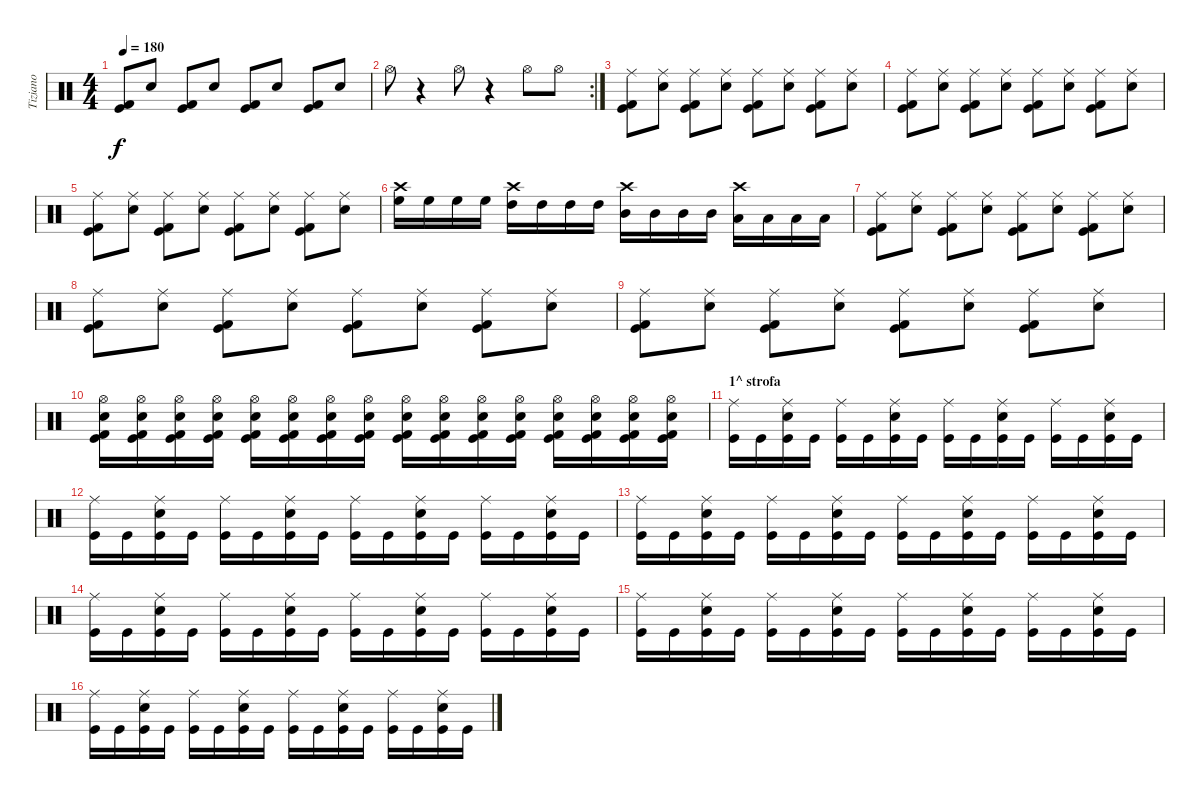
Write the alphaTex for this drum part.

\track ("Tiziano" "Tiziano") {instrument percussion}
\staff {score}
\articulation defaults
\ts (4 4)
\tempo 180
\clef neutral
\ks c
("Kick (hit)" "Kick (hit) 2").8{dy f} "Snare (hit) 2".8 ("Kick (hit)" "Kick (hit) 2").8 "Snare (hit) 2".8 ("Kick (hit)" "Kick (hit) 2").8 "Snare (hit) 2".8 ("Kick (hit)" "Kick (hit) 2").8 "Snare (hit) 2".8 |
\rc 2 "Hi-Hat (open)".8
r.4 "Hi-Hat (open)".8 r.4 "Hi-Hat (open)".8 "Hi-Hat (open)".8 |
("Kick (hit)" "Kick (hit) 2" "Ride (middle)").8 ("Snare (hit) 2" "Ride (middle)").8 ("Kick (hit)" "Kick (hit) 2" "Ride (middle)").8 ("Snare (hit) 2" "Ride (middle)").8 ("Kick (hit)" "Kick (hit) 2" "Ride (middle)").8 ("Snare (hit) 2" "Ride (middle)").8 ("Kick (hit)" "Kick (hit) 2" "Ride (middle)").8 ("Snare (hit) 2" "Ride (middle)").8 |
("Kick (hit)" "Kick (hit) 2" "Ride (middle)").8 ("Snare (hit) 2" "Ride (middle)").8 ("Kick (hit)" "Kick (hit) 2" "Ride (middle)").8 ("Snare (hit) 2" "Ride (middle)").8 ("Kick (hit)" "Kick (hit) 2" "Ride (middle)").8 ("Snare (hit) 2" "Ride (middle)").8 ("Kick (hit)" "Kick (hit) 2" "Ride (middle)").8 ("Snare (hit) 2" "Ride (middle)").8 |
("Kick (hit)" "Kick (hit) 2" "Ride (middle)").8 ("Snare (hit) 2" "Ride (middle)").8 ("Kick (hit)" "Kick (hit) 2" "Ride (middle)").8 ("Snare (hit) 2" "Ride (middle)").8 ("Kick (hit)" "Kick (hit) 2" "Ride (middle)").8 ("Snare (hit) 2" "Ride (middle)").8 ("Kick (hit)" "Kick (hit) 2" "Ride (middle)").8 ("Snare (hit) 2" "Ride (middle)").8 |
("High Floor Tom (hit)" "Crash high (hit)").16 "High Floor Tom (hit)".16 "High Floor Tom (hit)".16 "High Floor Tom (hit)".16 ("High Tom (hit)" "Crash high (hit)").16 "High Tom (hit)".16 "High Tom (hit)".16 "High Tom (hit)".16 ("Mid Tom (hit)" "Crash high (hit)").16 "Mid Tom (hit)".16 "Mid Tom (hit)".16 "Mid Tom (hit)".16 ("Low Tom (hit)" "Crash high (hit)").16 "Low Tom (hit)".16 "Low Tom (hit)".16 "Low Tom (hit)".16 |
("Kick (hit)" "Kick (hit) 2" "Ride (middle)").8 ("Snare (hit) 2" "Ride (middle)").8 ("Kick (hit)" "Kick (hit) 2" "Ride (middle)").8 ("Snare (hit) 2" "Ride (middle)").8 ("Kick (hit)" "Kick (hit) 2" "Ride (middle)").8 ("Snare (hit) 2" "Ride (middle)").8 ("Kick (hit)" "Kick (hit) 2" "Ride (middle)").8 ("Snare (hit) 2" "Ride (middle)").8 |
("Kick (hit)" "Kick (hit) 2" "Ride (middle)").8 ("Snare (hit) 2" "Ride (middle)").8 ("Kick (hit)" "Kick (hit) 2" "Ride (middle)").8 ("Snare (hit) 2" "Ride (middle)").8 ("Kick (hit)" "Kick (hit) 2" "Ride (middle)").8 ("Snare (hit) 2" "Ride (middle)").8 ("Kick (hit)" "Kick (hit) 2" "Ride (middle)").8 ("Snare (hit) 2" "Ride (middle)").8 |
("Kick (hit)" "Kick (hit) 2" "Ride (middle)").8 ("Snare (hit) 2" "Ride (middle)").8 ("Kick (hit)" "Kick (hit) 2" "Ride (middle)").8 ("Snare (hit) 2" "Ride (middle)").8 ("Kick (hit)" "Kick (hit) 2" "Ride (middle)").8 ("Snare (hit) 2" "Ride (middle)").8 ("Kick (hit)" "Kick (hit) 2" "Ride (middle)").8 ("Snare (hit) 2" "Ride (middle)").8 |
("Hi-Hat (open)" "Kick (hit)" "Kick (hit) 2" "Snare (hit) 2").16 ("Hi-Hat (open)" "Kick (hit)" "Kick (hit) 2" "Snare (hit) 2").16 ("Hi-Hat (open)" "Kick (hit)" "Kick (hit) 2" "Snare (hit) 2").16 ("Hi-Hat (open)" "Kick (hit)" "Kick (hit) 2" "Snare (hit) 2").16 ("Hi-Hat (open)" "Kick (hit)" "Kick (hit) 2" "Snare (hit) 2").16 ("Hi-Hat (open)" "Kick (hit)" "Kick (hit) 2" "Snare (hit) 2").16 ("Hi-Hat (open)" "Kick (hit)" "Kick (hit) 2" "Snare (hit) 2").16 ("Hi-Hat (open)" "Kick (hit)" "Kick (hit) 2" "Snare (hit) 2").16 ("Hi-Hat (open)" "Kick (hit)" "Kick (hit) 2" "Snare (hit) 2").16 ("Hi-Hat (open)" "Kick (hit)" "Kick (hit) 2" "Snare (hit) 2").16 ("Hi-Hat (open)" "Kick (hit)" "Kick (hit) 2" "Snare (hit) 2").16 ("Hi-Hat (open)" "Kick (hit)" "Kick (hit) 2" "Snare (hit) 2").16 ("Hi-Hat (open)" "Kick (hit)" "Kick (hit) 2" "Snare (hit) 2").16 ("Hi-Hat (open)" "Kick (hit)" "Kick (hit) 2" "Snare (hit) 2").16 ("Hi-Hat (open)" "Kick (hit)" "Kick (hit) 2" "Snare (hit) 2").16 ("Hi-Hat (open)" "Kick (hit)" "Kick (hit) 2" "Snare (hit) 2").16 |
\section ("" "1^ strofa")
("Kick (hit)" "Ride (middle)").16 "Kick (hit)".16 ("Kick (hit)" "Snare (hit) 2" "Ride (middle)").16 "Kick (hit)".16 ("Kick (hit)" "Ride (middle)").16 "Kick (hit)".16 ("Kick (hit)" "Snare (hit) 2" "Ride (middle)").16 "Kick (hit)".16 ("Kick (hit)" "Ride (middle)").16 "Kick (hit)".16 ("Kick (hit)" "Snare (hit) 2" "Ride (middle)").16 "Kick (hit)".16 ("Kick (hit)" "Ride (middle)").16 "Kick (hit)".16 ("Kick (hit)" "Snare (hit) 2" "Ride (middle)").16 "Kick (hit)".16 |
("Kick (hit)" "Ride (middle)").16 "Kick (hit)".16 ("Kick (hit)" "Snare (hit) 2" "Ride (middle)").16 "Kick (hit)".16 ("Kick (hit)" "Ride (middle)").16 "Kick (hit)".16 ("Kick (hit)" "Snare (hit) 2" "Ride (middle)").16 "Kick (hit)".16 ("Kick (hit)" "Ride (middle)").16 "Kick (hit)".16 ("Kick (hit)" "Snare (hit) 2" "Ride (middle)").16 "Kick (hit)".16 ("Kick (hit)" "Ride (middle)").16 "Kick (hit)".16 ("Kick (hit)" "Snare (hit) 2" "Ride (middle)").16 "Kick (hit)".16 |
("Kick (hit)" "Ride (middle)").16 "Kick (hit)".16 ("Kick (hit)" "Snare (hit) 2" "Ride (middle)").16 "Kick (hit)".16 ("Kick (hit)" "Ride (middle)").16 "Kick (hit)".16 ("Kick (hit)" "Snare (hit) 2" "Ride (middle)").16 "Kick (hit)".16 ("Kick (hit)" "Ride (middle)").16 "Kick (hit)".16 ("Kick (hit)" "Snare (hit) 2" "Ride (middle)").16 "Kick (hit)".16 ("Kick (hit)" "Ride (middle)").16 "Kick (hit)".16 ("Kick (hit)" "Snare (hit) 2" "Ride (middle)").16 "Kick (hit)".16 |
("Kick (hit)" "Ride (middle)").16 "Kick (hit)".16 ("Kick (hit)" "Snare (hit) 2" "Ride (middle)").16 "Kick (hit)".16 ("Kick (hit)" "Ride (middle)").16 "Kick (hit)".16 ("Kick (hit)" "Snare (hit) 2" "Ride (middle)").16 "Kick (hit)".16 ("Kick (hit)" "Ride (middle)").16 "Kick (hit)".16 ("Kick (hit)" "Snare (hit) 2" "Ride (middle)").16 "Kick (hit)".16 ("Kick (hit)" "Ride (middle)").16 "Kick (hit)".16 ("Kick (hit)" "Snare (hit) 2" "Ride (middle)").16 "Kick (hit)".16 |
("Kick (hit)" "Ride (middle)").16 "Kick (hit)".16 ("Kick (hit)" "Snare (hit) 2" "Ride (middle)").16 "Kick (hit)".16 ("Kick (hit)" "Ride (middle)").16 "Kick (hit)".16 ("Kick (hit)" "Snare (hit) 2" "Ride (middle)").16 "Kick (hit)".16 ("Kick (hit)" "Ride (middle)").16 "Kick (hit)".16 ("Kick (hit)" "Snare (hit) 2" "Ride (middle)").16 "Kick (hit)".16 ("Kick (hit)" "Ride (middle)").16 "Kick (hit)".16 ("Kick (hit)" "Snare (hit) 2" "Ride (middle)").16 "Kick (hit)".16 |
("Kick (hit)" "Ride (middle)").16 "Kick (hit)".16 ("Kick (hit)" "Snare (hit) 2" "Ride (middle)").16 "Kick (hit)".16 ("Kick (hit)" "Ride (middle)").16 "Kick (hit)".16 ("Kick (hit)" "Snare (hit) 2" "Ride (middle)").16 "Kick (hit)".16 ("Kick (hit)" "Ride (middle)").16 "Kick (hit)".16 ("Kick (hit)" "Snare (hit) 2" "Ride (middle)").16 "Kick (hit)".16 ("Kick (hit)" "Ride (middle)").16 "Kick (hit)".16 ("Kick (hit)" "Snare (hit) 2" "Ride (middle)").16 "Kick (hit)".16
